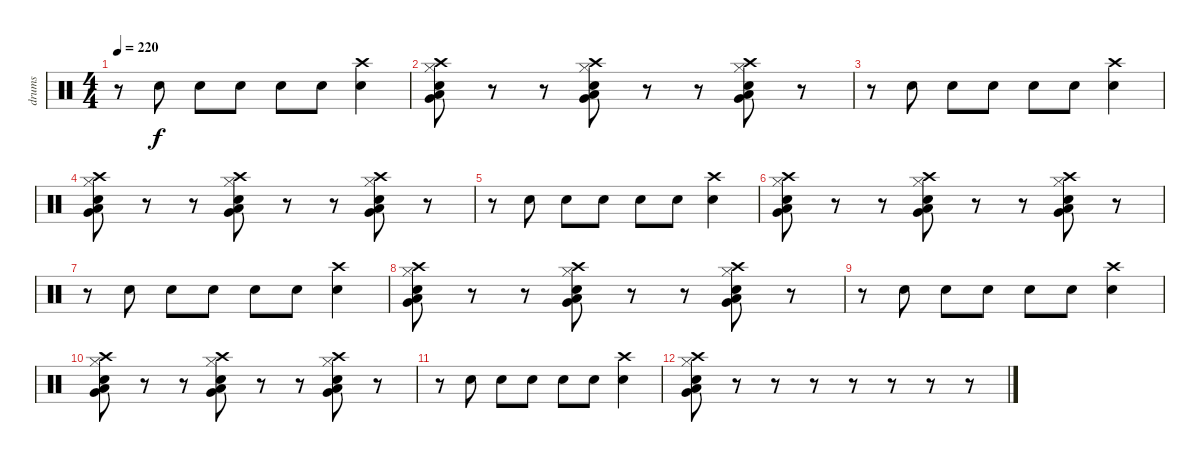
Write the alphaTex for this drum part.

\track ("drums" "drums") {instrument percussion}
\staff {score}
\articulation defaults
\ts (4 4)
\tempo 220
\clef neutral
\ks c
r.8{dy f} "Electric Snare (hit)".8 "Electric Snare (hit)".8 "Electric Snare (hit)".8 "Electric Snare (hit)".8 "Electric Snare (hit)".8 ("Electric Snare (hit)" "Crash high (hit)").4 |
("Crash high (hit)" "Very Low Tom (hit)" "Low Floor Tom (hit)" "Electric Snare (hit)" "Hi-Hat (closed)").8 r.8 r.8 ("Crash high (hit)" "Very Low Tom (hit)" "Low Floor Tom (hit)" "Electric Snare (hit)" "Hi-Hat (closed)").8 r.8 r.8 ("Crash high (hit)" "Very Low Tom (hit)" "Low Floor Tom (hit)" "Electric Snare (hit)" "Hi-Hat (closed)").8 r.8 |
r.8 "Electric Snare (hit)".8 "Electric Snare (hit)".8 "Electric Snare (hit)".8 "Electric Snare (hit)".8 "Electric Snare (hit)".8 ("Electric Snare (hit)" "Crash high (hit)").4 |
("Crash high (hit)" "Very Low Tom (hit)" "Low Floor Tom (hit)" "Electric Snare (hit)" "Hi-Hat (closed)").8 r.8 r.8 ("Crash high (hit)" "Very Low Tom (hit)" "Low Floor Tom (hit)" "Electric Snare (hit)" "Hi-Hat (closed)").8 r.8 r.8 ("Crash high (hit)" "Very Low Tom (hit)" "Low Floor Tom (hit)" "Electric Snare (hit)" "Hi-Hat (closed)").8 r.8 |
r.8 "Electric Snare (hit)".8 "Electric Snare (hit)".8 "Electric Snare (hit)".8 "Electric Snare (hit)".8 "Electric Snare (hit)".8 ("Electric Snare (hit)" "Crash high (hit)").4 |
("Crash high (hit)" "Very Low Tom (hit)" "Low Floor Tom (hit)" "Electric Snare (hit)" "Hi-Hat (closed)").8 r.8 r.8 ("Crash high (hit)" "Very Low Tom (hit)" "Low Floor Tom (hit)" "Electric Snare (hit)" "Hi-Hat (closed)").8 r.8 r.8 ("Crash high (hit)" "Very Low Tom (hit)" "Low Floor Tom (hit)" "Electric Snare (hit)" "Hi-Hat (closed)").8 r.8 |
r.8 "Electric Snare (hit)".8 "Electric Snare (hit)".8 "Electric Snare (hit)".8 "Electric Snare (hit)".8 "Electric Snare (hit)".8 ("Electric Snare (hit)" "Crash high (hit)").4 |
("Crash high (hit)" "Very Low Tom (hit)" "Low Floor Tom (hit)" "Electric Snare (hit)" "Hi-Hat (closed)").8 r.8 r.8 ("Crash high (hit)" "Very Low Tom (hit)" "Low Floor Tom (hit)" "Electric Snare (hit)" "Hi-Hat (closed)").8 r.8 r.8 ("Crash high (hit)" "Very Low Tom (hit)" "Low Floor Tom (hit)" "Electric Snare (hit)" "Hi-Hat (closed)").8 r.8 |
r.8 "Electric Snare (hit)".8 "Electric Snare (hit)".8 "Electric Snare (hit)".8 "Electric Snare (hit)".8 "Electric Snare (hit)".8 ("Electric Snare (hit)" "Crash high (hit)").4 |
("Crash high (hit)" "Very Low Tom (hit)" "Low Floor Tom (hit)" "Electric Snare (hit)" "Hi-Hat (closed)").8 r.8 r.8 ("Crash high (hit)" "Very Low Tom (hit)" "Low Floor Tom (hit)" "Electric Snare (hit)" "Hi-Hat (closed)").8 r.8 r.8 ("Crash high (hit)" "Very Low Tom (hit)" "Low Floor Tom (hit)" "Electric Snare (hit)" "Hi-Hat (closed)").8 r.8 |
r.8 "Electric Snare (hit)".8 "Electric Snare (hit)".8 "Electric Snare (hit)".8 "Electric Snare (hit)".8 "Electric Snare (hit)".8 ("Electric Snare (hit)" "Crash high (hit)").4 |
("Crash high (hit)" "Very Low Tom (hit)" "Low Floor Tom (hit)" "Electric Snare (hit)" "Hi-Hat (closed)").8 r.8 r.8 r.8 r.8 r.8 r.8 r.8
